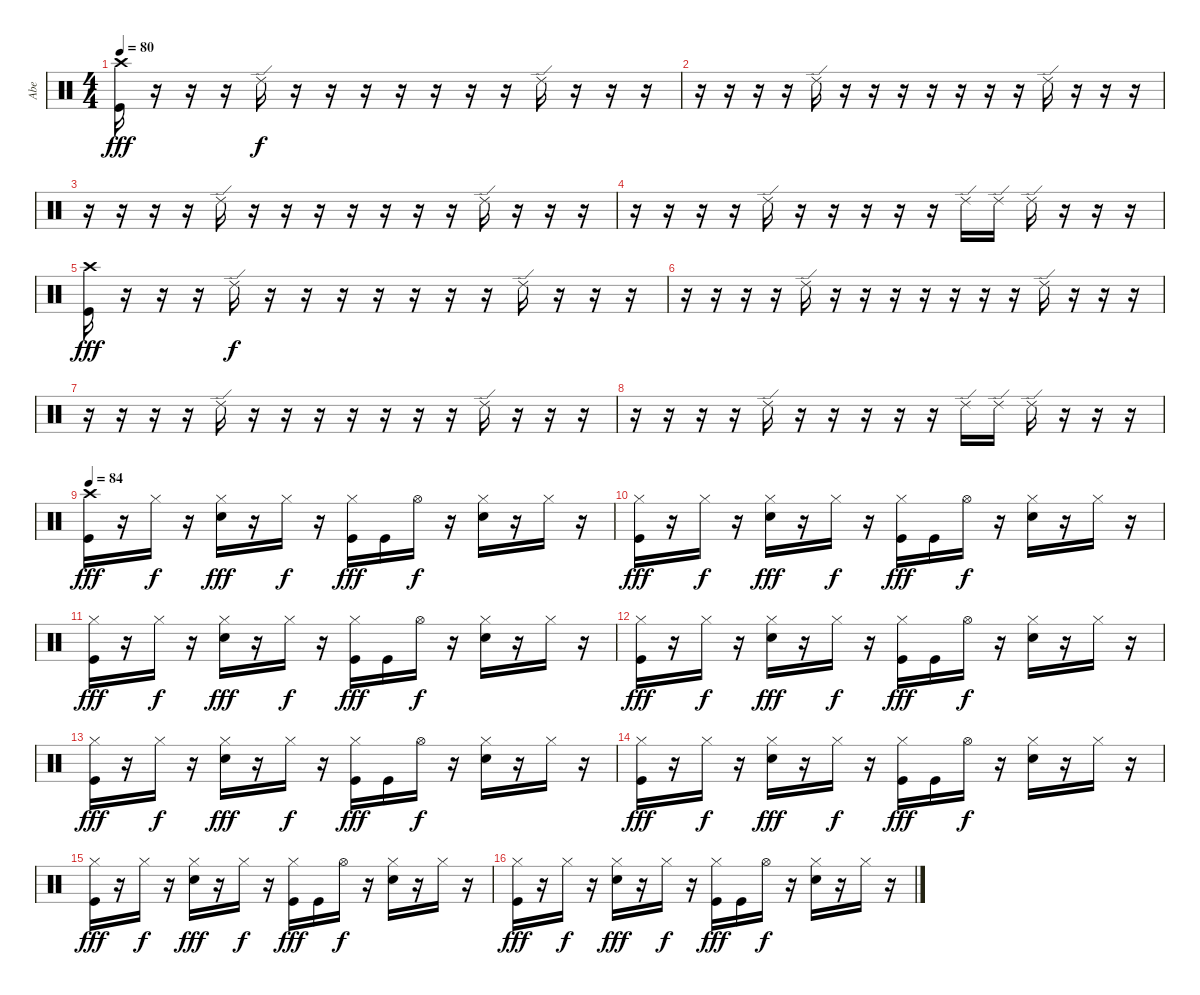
\track ("Abe" "Abe") {instrument percussion}
\staff {score}
\articulation defaults
\ts (4 4)
\tempo 80
\clef neutral
\ks c
("Crash high (hit)" "Kick (hit)").16{dy fff} r.16 r.16 r.16 "Ride (edge) 2".16{dy f} r.16 r.16 r.16 r.16 r.16 r.16 r.16 "Ride (edge) 2".16 r.16 r.16 r.16 |
r.16 r.16 r.16 r.16 "Ride (edge) 2".16 r.16 r.16 r.16 r.16 r.16 r.16 r.16 "Ride (edge) 2".16 r.16 r.16 r.16 |
r.16 r.16 r.16 r.16 "Ride (edge) 2".16 r.16 r.16 r.16 r.16 r.16 r.16 r.16 "Ride (edge) 2".16 r.16 r.16 r.16 |
r.16 r.16 r.16 r.16 "Ride (edge) 2".16 r.16 r.16 r.16 r.16 r.16 "Ride (edge) 2".16 "Ride (edge) 2".16 "Ride (edge) 2".16 r.16 r.16 r.16 |
("Crash high (hit)" "Kick (hit)").16{dy fff} r.16 r.16 r.16 "Ride (edge) 2".16{dy f} r.16 r.16 r.16 r.16 r.16 r.16 r.16 "Ride (edge) 2".16 r.16 r.16 r.16 |
r.16 r.16 r.16 r.16 "Ride (edge) 2".16 r.16 r.16 r.16 r.16 r.16 r.16 r.16 "Ride (edge) 2".16 r.16 r.16 r.16 |
r.16 r.16 r.16 r.16 "Ride (edge) 2".16 r.16 r.16 r.16 r.16 r.16 r.16 r.16 "Ride (edge) 2".16 r.16 r.16 r.16 |
r.16 r.16 r.16 r.16 "Ride (edge) 2".16 r.16 r.16 r.16 r.16 r.16 "Ride (edge) 2".16 "Ride (edge) 2".16 "Ride (edge) 2".16 r.16 r.16 r.16 |
\tempo 84
("Crash high (hit)" "Kick (hit)").16{dy fff} r.16 "Hi-Hat (closed)".16{dy f} r.16 ("Hi-Hat (closed)" "Electric Snare (hit)").16{dy fff} r.16 "Hi-Hat (closed)".16{dy f} r.16 ("Hi-Hat (closed)" "Kick (hit)").16{dy fff} "Kick (hit)".16 "Hi-Hat (open)".16{dy f} r.16 ("Hi-Hat (closed)" "Electric Snare (hit)").16 r.16 "Hi-Hat (closed)".16 r.16 |
("Hi-Hat (closed)" "Kick (hit)").16{dy fff} r.16 "Hi-Hat (closed)".16{dy f} r.16 ("Hi-Hat (closed)" "Electric Snare (hit)").16{dy fff} r.16 "Hi-Hat (closed)".16{dy f} r.16 ("Hi-Hat (closed)" "Kick (hit)").16{dy fff} "Kick (hit)".16 "Hi-Hat (open)".16{dy f} r.16 ("Hi-Hat (closed)" "Electric Snare (hit)").16 r.16 "Hi-Hat (closed)".16 r.16 |
("Hi-Hat (closed)" "Kick (hit)").16{dy fff} r.16 "Hi-Hat (closed)".16{dy f} r.16 ("Hi-Hat (closed)" "Electric Snare (hit)").16{dy fff} r.16 "Hi-Hat (closed)".16{dy f} r.16 ("Hi-Hat (closed)" "Kick (hit)").16{dy fff} "Kick (hit)".16 "Hi-Hat (open)".16{dy f} r.16 ("Hi-Hat (closed)" "Electric Snare (hit)").16 r.16 "Hi-Hat (closed)".16 r.16 |
("Hi-Hat (closed)" "Kick (hit)").16{dy fff} r.16 "Hi-Hat (closed)".16{dy f} r.16 ("Hi-Hat (closed)" "Electric Snare (hit)").16{dy fff} r.16 "Hi-Hat (closed)".16{dy f} r.16 ("Hi-Hat (closed)" "Kick (hit)").16{dy fff} "Kick (hit)".16 "Hi-Hat (open)".16{dy f} r.16 ("Hi-Hat (closed)" "Electric Snare (hit)").16 r.16 "Hi-Hat (closed)".16 r.16 |
("Hi-Hat (closed)" "Kick (hit)").16{dy fff} r.16 "Hi-Hat (closed)".16{dy f} r.16 ("Hi-Hat (closed)" "Electric Snare (hit)").16{dy fff} r.16 "Hi-Hat (closed)".16{dy f} r.16 ("Hi-Hat (closed)" "Kick (hit)").16{dy fff} "Kick (hit)".16 "Hi-Hat (open)".16{dy f} r.16 ("Hi-Hat (closed)" "Electric Snare (hit)").16 r.16 "Hi-Hat (closed)".16 r.16 |
("Hi-Hat (closed)" "Kick (hit)").16{dy fff} r.16 "Hi-Hat (closed)".16{dy f} r.16 ("Hi-Hat (closed)" "Electric Snare (hit)").16{dy fff} r.16 "Hi-Hat (closed)".16{dy f} r.16 ("Hi-Hat (closed)" "Kick (hit)").16{dy fff} "Kick (hit)".16 "Hi-Hat (open)".16{dy f} r.16 ("Hi-Hat (closed)" "Electric Snare (hit)").16 r.16 "Hi-Hat (closed)".16 r.16 |
("Hi-Hat (closed)" "Kick (hit)").16{dy fff} r.16 "Hi-Hat (closed)".16{dy f} r.16 ("Hi-Hat (closed)" "Electric Snare (hit)").16{dy fff} r.16 "Hi-Hat (closed)".16{dy f} r.16 ("Hi-Hat (closed)" "Kick (hit)").16{dy fff} "Kick (hit)".16 "Hi-Hat (open)".16{dy f} r.16 ("Hi-Hat (closed)" "Electric Snare (hit)").16 r.16 "Hi-Hat (closed)".16 r.16 |
("Hi-Hat (closed)" "Kick (hit)").16{dy fff} r.16 "Hi-Hat (closed)".16{dy f} r.16 ("Hi-Hat (closed)" "Electric Snare (hit)").16{dy fff} r.16 "Hi-Hat (closed)".16{dy f} r.16 ("Hi-Hat (closed)" "Kick (hit)").16{dy fff} "Kick (hit)".16 "Hi-Hat (open)".16{dy f} r.16 ("Hi-Hat (closed)" "Electric Snare (hit)").16 r.16 "Hi-Hat (closed)".16 r.16
